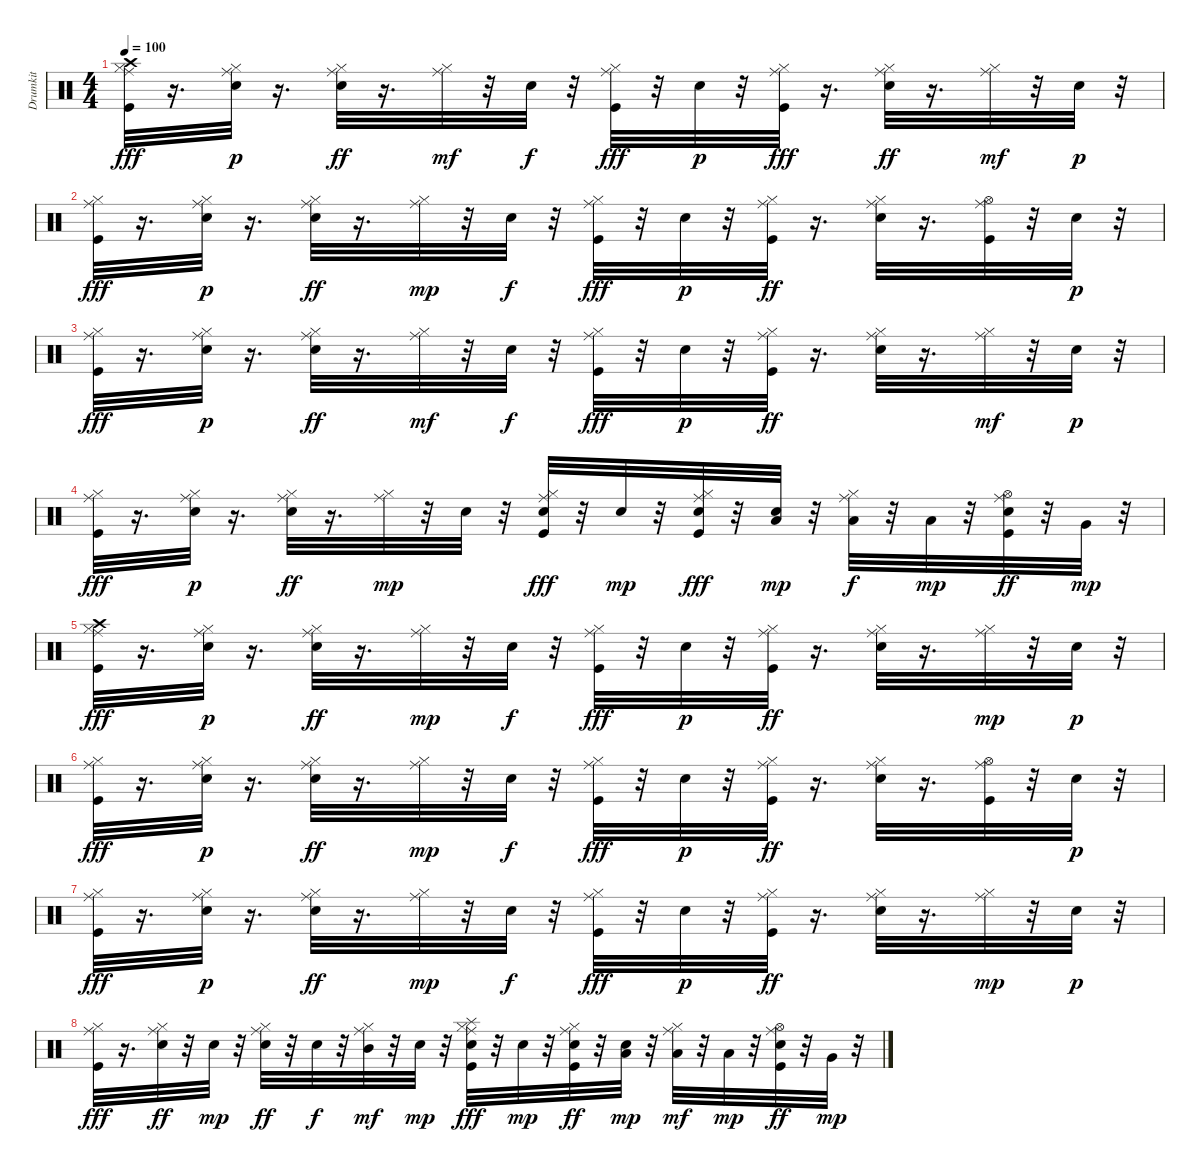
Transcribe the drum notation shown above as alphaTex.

\track ("Drumkit" "Drumkit") {instrument percussion}
\staff {score}
\articulation defaults
\ts (4 4)
\tempo 100
\clef neutral
\ks c
("Kick (hit)" "Hi-Hat (closed)" "Crash high (hit)" "Ride (middle)").32{dy fff} r.16{d} ("Snare (hit) 2" "Hi-Hat (closed)" "Ride (middle)").32{dy p} r.16{d} ("Snare (hit) 2" "Hi-Hat (closed)" "Ride (middle)").32{dy ff} r.16{d} ("Hi-Hat (closed)" "Ride (middle)").32{dy mf} r.32 "Snare (hit) 2".32{dy f} r.32 ("Kick (hit)" "Hi-Hat (closed)" "Ride (middle)").32{dy fff} r.32 "Snare (hit) 2".32{dy p} r.32 ("Kick (hit)" "Hi-Hat (closed)" "Ride (middle)").32{dy fff} r.16{d} ("Snare (hit) 2" "Hi-Hat (closed)" "Ride (middle)").32{dy ff} r.16{d} ("Hi-Hat (closed)" "Ride (middle)").32{dy mf} r.32 "Snare (hit) 2".32{dy p} r.32 |
("Kick (hit)" "Hi-Hat (closed)" "Ride (middle)").32{dy fff} r.16{d} ("Snare (hit) 2" "Hi-Hat (closed)" "Ride (middle)").32{dy p} r.16{d} ("Snare (hit) 2" "Hi-Hat (closed)" "Ride (middle)").32{dy ff} r.16{d} ("Hi-Hat (closed)" "Ride (middle)").32{dy mp} r.32 "Snare (hit) 2".32{dy f} r.32 ("Kick (hit)" "Hi-Hat (closed)" "Ride (middle)").32{dy fff} r.32 "Snare (hit) 2".32{dy p} r.32 ("Kick (hit)" "Hi-Hat (closed)" "Ride (middle)").32{dy ff} r.16{d} ("Snare (hit) 2" "Hi-Hat (closed)" "Ride (middle)").32 r.16{d} ("Kick (hit)" "Hi-Hat (open)" "Ride (middle)").32 r.32 "Snare (hit) 2".32{dy p} r.32 |
("Kick (hit)" "Hi-Hat (closed)" "Ride (middle)").32{dy fff} r.16{d} ("Snare (hit) 2" "Hi-Hat (closed)" "Ride (middle)").32{dy p} r.16{d} ("Snare (hit) 2" "Hi-Hat (closed)" "Ride (middle)").32{dy ff} r.16{d} ("Hi-Hat (closed)" "Ride (middle)").32{dy mf} r.32 "Snare (hit) 2".32{dy f} r.32 ("Kick (hit)" "Hi-Hat (closed)" "Ride (middle)").32{dy fff} r.32 "Snare (hit) 2".32{dy p} r.32 ("Kick (hit)" "Hi-Hat (closed)" "Ride (middle)").32{dy ff} r.16{d} ("Snare (hit) 2" "Hi-Hat (closed)" "Ride (middle)").32 r.16{d} ("Hi-Hat (closed)" "Ride (middle)").32{dy mf} r.32 "Snare (hit) 2".32{dy p} r.32 |
("Kick (hit)" "Hi-Hat (closed)" "Ride (middle)").32{dy fff} r.16{d} ("Snare (hit) 2" "Hi-Hat (closed)" "Ride (middle)").32{dy p} r.16{d} ("Snare (hit) 2" "Hi-Hat (closed)" "Ride (middle)").32{dy ff} r.16{d} ("Hi-Hat (closed)" "Ride (middle)").32{dy mp} r.32 "Snare (hit) 2".32 r.32 ("Kick (hit)" "Snare (hit) 2" "Hi-Hat (closed)" "Ride (middle)").32{dy fff} r.32 "Snare (hit) 2".32{dy mp} r.32 ("Kick (hit)" "Snare (hit) 2" "Hi-Hat (closed)" "Ride (middle)").32{dy fff} r.32 ("Snare (hit) 2" "Low Tom (hit)").32{dy mp} r.32 ("Hi-Hat (closed)" "Low Tom (hit)" "Ride (middle)").32{dy f} r.32 "Low Tom (hit)".32{dy mp} r.32 ("Kick (hit)" "Snare (hit) 2" "Hi-Hat (open)" "Ride (middle)").32{dy ff} r.32 "Very Low Tom (hit)".32{dy mp} r.32 |
("Kick (hit)" "Hi-Hat (closed)" "Crash high (hit)" "Ride (middle)").32{dy fff} r.16{d} ("Snare (hit) 2" "Hi-Hat (closed)" "Ride (middle)").32{dy p} r.16{d} ("Snare (hit) 2" "Hi-Hat (closed)" "Ride (middle)").32{dy ff} r.16{d} ("Hi-Hat (closed)" "Ride (middle)").32{dy mp} r.32 "Snare (hit) 2".32{dy f} r.32 ("Kick (hit)" "Hi-Hat (closed)" "Ride (middle)").32{dy fff} r.32 "Snare (hit) 2".32{dy p} r.32 ("Kick (hit)" "Hi-Hat (closed)" "Ride (middle)").32{dy ff} r.16{d} ("Snare (hit) 2" "Hi-Hat (closed)" "Ride (middle)").32 r.16{d} ("Hi-Hat (closed)" "Ride (middle)").32{dy mp} r.32 "Snare (hit) 2".32{dy p} r.32 |
("Kick (hit)" "Hi-Hat (closed)" "Ride (middle)").32{dy fff} r.16{d} ("Snare (hit) 2" "Hi-Hat (closed)" "Ride (middle)").32{dy p} r.16{d} ("Snare (hit) 2" "Hi-Hat (closed)" "Ride (middle)").32{dy ff} r.16{d} ("Hi-Hat (closed)" "Ride (middle)").32{dy mp} r.32 "Snare (hit) 2".32{dy f} r.32 ("Kick (hit)" "Hi-Hat (closed)" "Ride (middle)").32{dy fff} r.32 "Snare (hit) 2".32{dy p} r.32 ("Kick (hit)" "Hi-Hat (closed)" "Ride (middle)").32{dy ff} r.16{d} ("Snare (hit) 2" "Hi-Hat (closed)" "Ride (middle)").32 r.16{d} ("Kick (hit)" "Hi-Hat (open)" "Ride (middle)").32 r.32 "Snare (hit) 2".32{dy p} r.32 |
("Kick (hit)" "Hi-Hat (closed)" "Ride (middle)").32{dy fff} r.16{d} ("Snare (hit) 2" "Hi-Hat (closed)" "Ride (middle)").32{dy p} r.16{d} ("Snare (hit) 2" "Hi-Hat (closed)" "Ride (middle)").32{dy ff} r.16{d} ("Hi-Hat (closed)" "Ride (middle)").32{dy mp} r.32 "Snare (hit) 2".32{dy f} r.32 ("Kick (hit)" "Hi-Hat (closed)" "Ride (middle)").32{dy fff} r.32 "Snare (hit) 2".32{dy p} r.32 ("Kick (hit)" "Hi-Hat (closed)" "Ride (middle)").32{dy ff} r.16{d} ("Snare (hit) 2" "Hi-Hat (closed)" "Ride (middle)").32 r.16{d} ("Hi-Hat (closed)" "Ride (middle)").32{dy mp} r.32 "Snare (hit) 2".32{dy p} r.32 |
("Kick (hit)" "Hi-Hat (closed)" "Ride (middle)").32{dy fff} r.16{d} ("Snare (hit) 2" "Hi-Hat (closed)" "Ride (middle)").32{dy ff} r.32 "Snare (hit) 2".32{dy mp} r.32 ("Snare (hit) 2" "Hi-Hat (closed)" "Ride (middle)").32{dy ff} r.32 "Snare (hit) 2".32{dy f} r.32 ("Hi-Hat (closed)" "Mid Tom (hit)" "Ride (middle)").32{dy mf} r.32 "Snare (hit) 2".32{dy mp} r.32 ("Kick (hit)" "Snare (hit) 2" "Hi-Hat (closed)" "Ride (middle)" "Splash (hit)").32{dy fff} r.32 "Snare (hit) 2".32{dy mp} r.32 ("Kick (hit)" "Snare (hit) 2" "Hi-Hat (closed)" "Ride (middle)").32{dy ff} r.32 ("Snare (hit) 2" "Low Tom (hit)").32{dy mp} r.32 ("Hi-Hat (closed)" "Low Tom (hit)" "Ride (middle)").32{dy mf} r.32 "Low Tom (hit)".32{dy mp} r.32 ("Kick (hit)" "Snare (hit) 2" "Hi-Hat (open)" "Ride (middle)").32{dy ff} r.32 "Very Low Tom (hit)".32{dy mp} r.32
